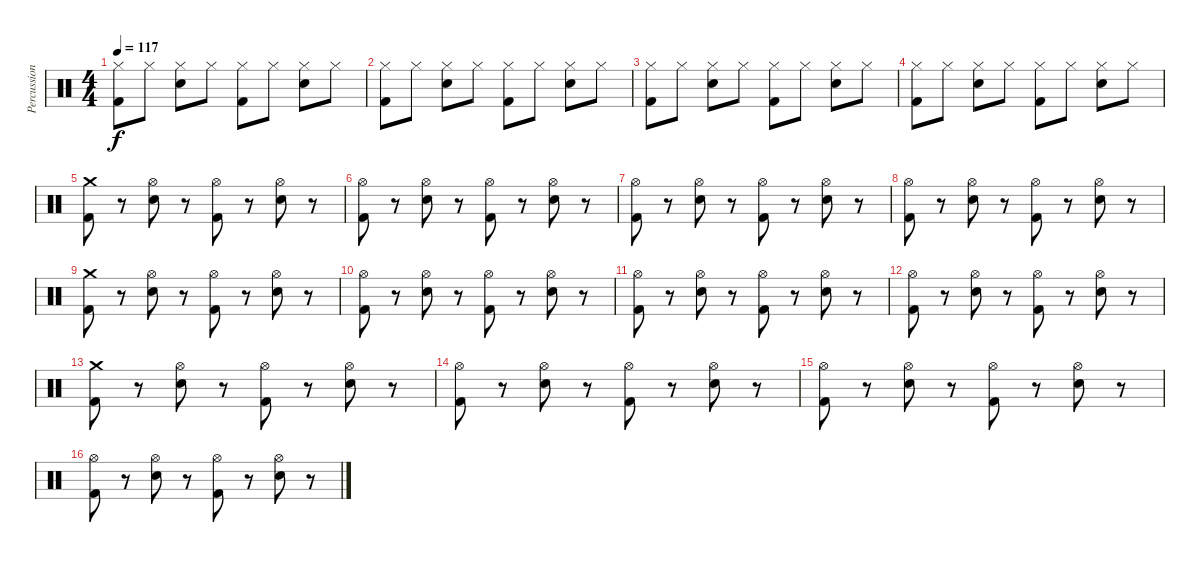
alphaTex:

\track ("Percussions" "Percussion") {instrument percussion}
\staff {score}
\articulation defaults
\ts (4 4)
\tempo 117
\clef neutral
\ks c
("Hi-Hat (closed)" "Kick (hit) 2").8{dy f} "Hi-Hat (closed)".8 ("Hi-Hat (closed)" "Electric Snare (hit)").8 "Hi-Hat (closed)".8 ("Hi-Hat (closed)" "Kick (hit) 2").8 "Hi-Hat (closed)".8 ("Hi-Hat (closed)" "Electric Snare (hit)").8 "Hi-Hat (closed)".8 |
("Hi-Hat (closed)" "Kick (hit) 2").8 "Hi-Hat (closed)".8 ("Hi-Hat (closed)" "Electric Snare (hit)").8 "Hi-Hat (closed)".8 ("Hi-Hat (closed)" "Kick (hit) 2").8 "Hi-Hat (closed)".8 ("Hi-Hat (closed)" "Electric Snare (hit)").8 "Hi-Hat (closed)".8 |
("Hi-Hat (closed)" "Kick (hit) 2").8 "Hi-Hat (closed)".8 ("Hi-Hat (closed)" "Electric Snare (hit)").8 "Hi-Hat (closed)".8 ("Hi-Hat (closed)" "Kick (hit) 2").8 "Hi-Hat (closed)".8 ("Hi-Hat (closed)" "Electric Snare (hit)").8 "Hi-Hat (closed)".8 |
("Hi-Hat (closed)" "Kick (hit) 2").8 "Hi-Hat (closed)".8 ("Hi-Hat (closed)" "Electric Snare (hit)").8 "Hi-Hat (closed)".8 ("Hi-Hat (closed)" "Kick (hit) 2").8 "Hi-Hat (closed)".8 ("Hi-Hat (closed)" "Electric Snare (hit)").8 "Hi-Hat (closed)".8 |
("Crash medium (hit)" "Kick (hit) 2").8 r.8 ("Hi-Hat (open)" "Electric Snare (hit)").8 r.8 ("Hi-Hat (open)" "Kick (hit) 2").8 r.8 ("Hi-Hat (open)" "Electric Snare (hit)").8 r.8 |
("Hi-Hat (open)" "Kick (hit) 2").8 r.8 ("Hi-Hat (open)" "Electric Snare (hit)").8 r.8 ("Hi-Hat (open)" "Kick (hit) 2").8 r.8 ("Hi-Hat (open)" "Electric Snare (hit)").8 r.8 |
("Hi-Hat (open)" "Kick (hit) 2").8 r.8 ("Hi-Hat (open)" "Electric Snare (hit)").8 r.8 ("Hi-Hat (open)" "Kick (hit) 2").8 r.8 ("Hi-Hat (open)" "Electric Snare (hit)").8 r.8 |
("Hi-Hat (open)" "Kick (hit) 2").8 r.8 ("Hi-Hat (open)" "Electric Snare (hit)").8 r.8 ("Hi-Hat (open)" "Kick (hit) 2").8 r.8 ("Hi-Hat (open)" "Electric Snare (hit)").8 r.8 |
("Crash medium (hit)" "Kick (hit) 2").8 r.8 ("Hi-Hat (open)" "Electric Snare (hit)").8 r.8 ("Hi-Hat (open)" "Kick (hit) 2").8 r.8 ("Hi-Hat (open)" "Electric Snare (hit)").8 r.8 |
("Hi-Hat (open)" "Kick (hit) 2").8 r.8 ("Hi-Hat (open)" "Electric Snare (hit)").8 r.8 ("Hi-Hat (open)" "Kick (hit) 2").8 r.8 ("Hi-Hat (open)" "Electric Snare (hit)").8 r.8 |
("Hi-Hat (open)" "Kick (hit) 2").8 r.8 ("Hi-Hat (open)" "Electric Snare (hit)").8 r.8 ("Hi-Hat (open)" "Kick (hit) 2").8 r.8 ("Hi-Hat (open)" "Electric Snare (hit)").8 r.8 |
("Hi-Hat (open)" "Kick (hit) 2").8 r.8 ("Hi-Hat (open)" "Electric Snare (hit)").8 r.8 ("Hi-Hat (open)" "Kick (hit) 2").8 r.8 ("Hi-Hat (open)" "Electric Snare (hit)").8 r.8 |
("Crash medium (hit)" "Kick (hit) 2").8 r.8 ("Hi-Hat (open)" "Electric Snare (hit)").8 r.8 ("Hi-Hat (open)" "Kick (hit) 2").8 r.8 ("Hi-Hat (open)" "Electric Snare (hit)").8 r.8 |
("Hi-Hat (open)" "Kick (hit) 2").8 r.8 ("Hi-Hat (open)" "Electric Snare (hit)").8 r.8 ("Hi-Hat (open)" "Kick (hit) 2").8 r.8 ("Hi-Hat (open)" "Electric Snare (hit)").8 r.8 |
("Hi-Hat (open)" "Kick (hit) 2").8 r.8 ("Hi-Hat (open)" "Electric Snare (hit)").8 r.8 ("Hi-Hat (open)" "Kick (hit) 2").8 r.8 ("Hi-Hat (open)" "Electric Snare (hit)").8 r.8 |
("Hi-Hat (open)" "Kick (hit) 2").8 r.8 ("Hi-Hat (open)" "Electric Snare (hit)").8 r.8 ("Hi-Hat (open)" "Kick (hit) 2").8 r.8 ("Hi-Hat (open)" "Electric Snare (hit)").8 r.8
